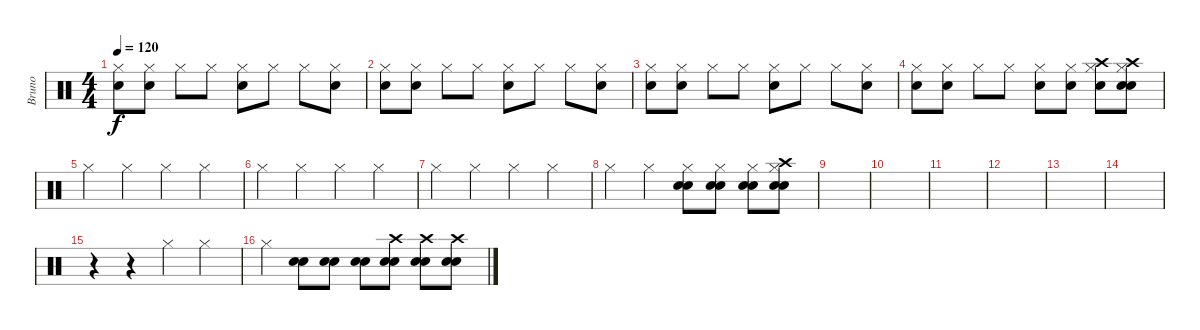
\track ("Bruno" "Bruno") {instrument percussion}
\staff {score}
\articulation defaults
\ts (4 4)
\tempo 120
\clef neutral
\ks c
("Hi-Hat (closed)" "Electric Snare (hit)").8{dy f} ("Hi-Hat (closed)" "Electric Snare (hit)").8 "Hi-Hat (closed)".8 "Hi-Hat (closed)".8 ("Hi-Hat (closed)" "Snare (hit) 2").8 "Hi-Hat (closed)".8 "Hi-Hat (closed)".8 ("Hi-Hat (closed)" "Snare (hit) 2").8 |
("Hi-Hat (closed)" "Electric Snare (hit)").8 ("Hi-Hat (closed)" "Electric Snare (hit)").8 "Hi-Hat (closed)".8 "Hi-Hat (closed)".8 ("Hi-Hat (closed)" "Snare (hit) 2").8 "Hi-Hat (closed)".8 "Hi-Hat (closed)".8 ("Hi-Hat (closed)" "Snare (hit) 2").8 |
("Hi-Hat (closed)" "Electric Snare (hit)").8 ("Hi-Hat (closed)" "Electric Snare (hit)").8 "Hi-Hat (closed)".8 "Hi-Hat (closed)".8 ("Hi-Hat (closed)" "Snare (hit) 2").8 "Hi-Hat (closed)".8 "Hi-Hat (closed)".8 ("Hi-Hat (closed)" "Snare (hit) 2").8 |
("Hi-Hat (closed)" "Electric Snare (hit)").8 ("Hi-Hat (closed)" "Electric Snare (hit)").8 "Hi-Hat (closed)".8 "Hi-Hat (closed)".8 ("Hi-Hat (closed)" "Snare (hit) 2").8 ("Hi-Hat (closed)" "Snare (hit) 2").8 ("Crash high (hit)" "Hi-Hat (closed)" "Snare (hit) 2").8 ("Crash high (hit)" "Hi-Hat (closed)" "Snare (hit) 2" "Electric Snare (hit)").8 |
"Hi-Hat (closed)".4 "Hi-Hat (closed)".4 "Hi-Hat (closed)".4 "Hi-Hat (closed)".4 |
"Hi-Hat (closed)".4 "Hi-Hat (closed)".4 "Hi-Hat (closed)".4 "Hi-Hat (closed)".4 |
"Hi-Hat (closed)".4 "Hi-Hat (closed)".4 "Hi-Hat (closed)".4 "Hi-Hat (closed)".4 |
"Hi-Hat (closed)".4 "Hi-Hat (closed)".4 ("Hi-Hat (closed)" "Snare (hit) 2" "Electric Snare (hit)").8 ("Hi-Hat (closed)" "Snare (hit) 2" "Electric Snare (hit)").8 ("Hi-Hat (closed)" "Snare (hit) 2" "Electric Snare (hit)").8 ("Crash high (hit)" "Hi-Hat (closed)" "Snare (hit) 2" "Electric Snare (hit)").8 |
|
|
|
|
|
|
r.4 r.4 "Hi-Hat (closed)".4 "Hi-Hat (closed)".4 |
"Hi-Hat (closed)".4 ("Snare (hit) 2" "Electric Snare (hit)").8 ("Snare (hit) 2" "Electric Snare (hit)").8 ("Snare (hit) 2" "Electric Snare (hit)").8 ("Crash high (hit)" "Snare (hit) 2" "Electric Snare (hit)").8 ("Crash high (hit)" "Snare (hit) 2" "Electric Snare (hit)").8 ("Crash high (hit)" "Snare (hit) 2" "Electric Snare (hit)").8
